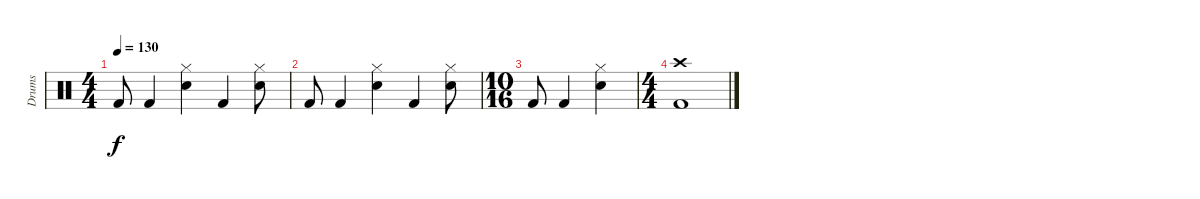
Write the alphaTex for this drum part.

\track ("Drums" "Drums") {instrument percussion}
\staff {score}
\articulation defaults
\ts (4 4)
\tempo 130
\clef neutral
\ks c "Kick (hit) 2".8{dy f} "Kick (hit) 2".4
("Hi-Hat (closed)" "Snare (hit) 2").4 "Kick (hit) 2".4 ("Hi-Hat (closed)" "Snare (hit) 2").8 |
"Kick (hit) 2".8 "Kick (hit) 2".4 ("Hi-Hat (closed)" "Snare (hit) 2").4 "Kick (hit) 2".4 ("Hi-Hat (closed)" "Snare (hit) 2").8 |
\ts (10 16)
"Kick (hit) 2".8 "Kick (hit) 2".4 ("Hi-Hat (closed)" "Snare (hit) 2").4 |
\ts (4 4)
("Crash high (hit)" "Kick (hit) 2").1
